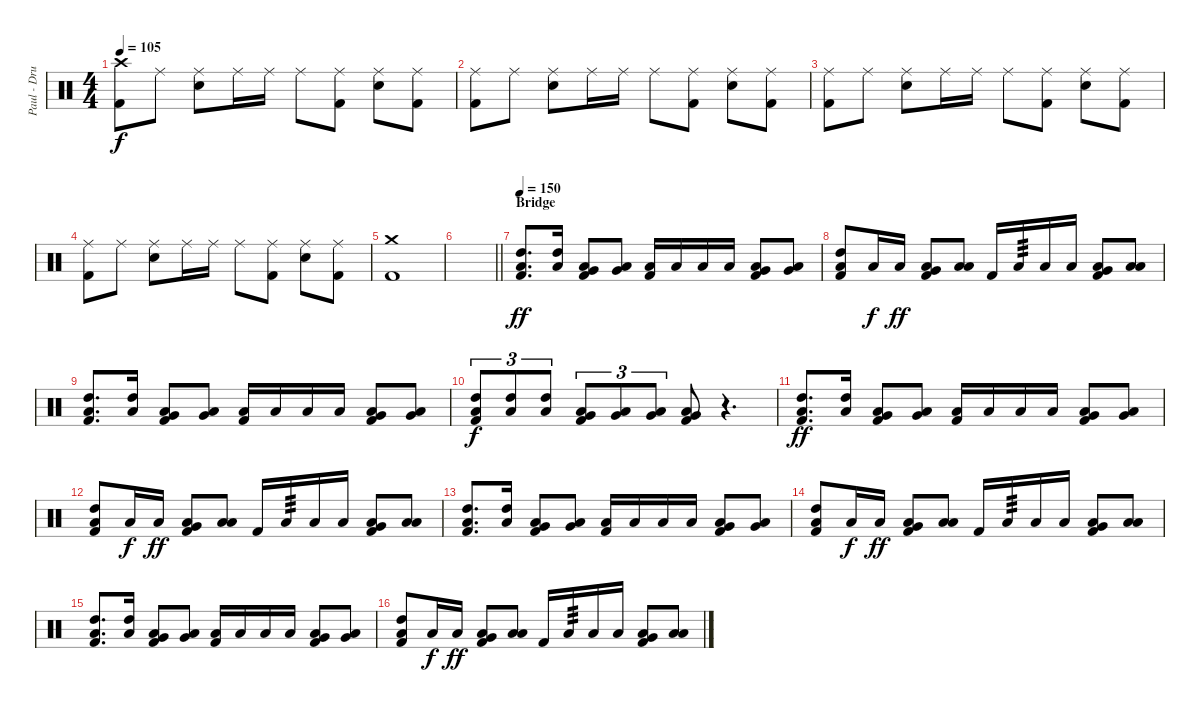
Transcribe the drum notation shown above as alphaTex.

\track ("Paul - Drums" "Paul - Dru") {instrument percussion}
\staff {score}
\articulation defaults
\ts (4 4)
\tempo 105
\clef neutral
\ks c
("Crash high (hit)" "Kick (hit) 2").8{dy f} "Ride (middle)".8 ("Ride (middle)" "Electric Snare (hit)").8 "Ride (middle)".16 "Ride (middle)".16 "Ride (middle)".8 ("Ride (middle)" "Kick (hit) 2").8 ("Ride (middle)" "Electric Snare (hit)").8 ("Ride (middle)" "Kick (hit) 2").8 |
("Ride (middle)" "Kick (hit) 2").8 "Ride (middle)".8 ("Ride (middle)" "Electric Snare (hit)").8 "Ride (middle)".16 "Ride (middle)".16 "Ride (middle)".8 ("Ride (middle)" "Kick (hit) 2").8 ("Ride (middle)" "Electric Snare (hit)").8 ("Ride (middle)" "Kick (hit) 2").8 |
("Ride (middle)" "Kick (hit) 2").8 "Ride (middle)".8 ("Ride (middle)" "Electric Snare (hit)").8 "Ride (middle)".16 "Ride (middle)".16 "Ride (middle)".8 ("Ride (middle)" "Kick (hit) 2").8 ("Ride (middle)" "Electric Snare (hit)").8 ("Ride (middle)" "Kick (hit) 2").8 |
("Ride (middle)" "Kick (hit) 2").8 "Ride (middle)".8 ("Ride (middle)" "Electric Snare (hit)").8 "Ride (middle)".16 "Ride (middle)".16 "Ride (middle)".8 ("Ride (middle)" "Kick (hit) 2").8 ("Ride (middle)" "Electric Snare (hit)").8 ("Ride (middle)" "Kick (hit) 2").8 |
("Crash medium (hit)" "Kick (hit) 2").1 |
\barLineRight lightlight
|
\section ("" "Bridge")
\tempo 150
("High Tom (hit)" "Low Tom (hit)" "Kick (hit) 2").8{d dy ff volume 14} ("High Tom (hit)" "Low Tom (hit)").16 ("Very Low Tom (hit)" "Low Tom (hit)" "Kick (hit) 2").8 ("Low Floor Tom (hit)" "Very Low Tom (hit)").8 ("Low Tom (hit)" "Kick (hit) 2").16 "Low Tom (hit)".16 "Low Tom (hit)".16 "Low Tom (hit)".16 ("Very Low Tom (hit)" "Low Tom (hit)" "Kick (hit) 2").8 ("Low Floor Tom (hit)" "Very Low Tom (hit)").8 |
("High Tom (hit)" "Low Tom (hit)" "Kick (hit) 2").8 "Low Tom (hit)".16{dy f} "Low Tom (hit)".16{dy ff} ("Low Tom (hit)" "Very Low Tom (hit)" "Kick (hit) 2").8 ("Low Tom (hit)" "Low Floor Tom (hit)").8 "Kick (hit) 2".16 "Low Tom (hit)".16{tp 3} "Low Tom (hit)".16 "Low Tom (hit)".16 ("Low Tom (hit)" "Very Low Tom (hit)" "Kick (hit) 2").8 ("Low Tom (hit)" "Low Floor Tom (hit)").8 |
("High Tom (hit)" "Low Tom (hit)" "Kick (hit) 2").8{d} ("High Tom (hit)" "Low Tom (hit)").16 ("Very Low Tom (hit)" "Low Tom (hit)" "Kick (hit) 2").8 ("Low Floor Tom (hit)" "Very Low Tom (hit)").8 ("Low Tom (hit)" "Kick (hit) 2").16 "Low Tom (hit)".16 "Low Tom (hit)".16 "Low Tom (hit)".16 ("Very Low Tom (hit)" "Low Tom (hit)" "Kick (hit) 2").8 ("Low Floor Tom (hit)" "Very Low Tom (hit)").8 |
("High Tom (hit)" "Low Tom (hit)" "Kick (hit) 2").8{tu (3 2) dy f} ("High Tom (hit)" "Low Tom (hit)").8{tu (3 2)} ("High Tom (hit)" "Low Tom (hit)").8{tu (3 2)} ("Low Tom (hit)" "Very Low Tom (hit)" "Kick (hit) 2").8{tu (3 2)} ("Low Tom (hit)" "Very Low Tom (hit)").8{tu (3 2)} ("Low Tom (hit)" "Very Low Tom (hit)").8{tu (3 2)} ("Very Low Tom (hit)" "Low Floor Tom (hit)" "Kick (hit) 2").8 r.4{d} |
("High Tom (hit)" "Low Tom (hit)" "Kick (hit) 2").8{d dy ff} ("High Tom (hit)" "Low Tom (hit)").16 ("Very Low Tom (hit)" "Low Tom (hit)" "Kick (hit) 2").8 ("Low Floor Tom (hit)" "Very Low Tom (hit)").8 ("Low Tom (hit)" "Kick (hit) 2").16 "Low Tom (hit)".16 "Low Tom (hit)".16 "Low Tom (hit)".16 ("Very Low Tom (hit)" "Low Tom (hit)" "Kick (hit) 2").8 ("Low Floor Tom (hit)" "Very Low Tom (hit)").8 |
("High Tom (hit)" "Low Tom (hit)" "Kick (hit) 2").8 "Low Tom (hit)".16{dy f} "Low Tom (hit)".16{dy ff} ("Low Tom (hit)" "Very Low Tom (hit)" "Kick (hit) 2").8 ("Low Tom (hit)" "Low Floor Tom (hit)").8 "Kick (hit) 2".16 "Low Tom (hit)".16{tp 3} "Low Tom (hit)".16 "Low Tom (hit)".16 ("Low Tom (hit)" "Very Low Tom (hit)" "Kick (hit) 2").8 ("Low Tom (hit)" "Low Floor Tom (hit)").8 |
("High Tom (hit)" "Low Tom (hit)" "Kick (hit) 2").8{d} ("High Tom (hit)" "Low Tom (hit)").16 ("Very Low Tom (hit)" "Low Tom (hit)" "Kick (hit) 2").8 ("Low Floor Tom (hit)" "Very Low Tom (hit)").8 ("Low Tom (hit)" "Kick (hit) 2").16 "Low Tom (hit)".16 "Low Tom (hit)".16 "Low Tom (hit)".16 ("Very Low Tom (hit)" "Low Tom (hit)" "Kick (hit) 2").8 ("Low Floor Tom (hit)" "Very Low Tom (hit)").8 |
("High Tom (hit)" "Low Tom (hit)" "Kick (hit) 2").8 "Low Tom (hit)".16{dy f} "Low Tom (hit)".16{dy ff} ("Low Tom (hit)" "Very Low Tom (hit)" "Kick (hit) 2").8 ("Low Tom (hit)" "Low Floor Tom (hit)").8 "Kick (hit) 2".16 "Low Tom (hit)".16{tp 3} "Low Tom (hit)".16 "Low Tom (hit)".16 ("Low Tom (hit)" "Very Low Tom (hit)" "Kick (hit) 2").8 ("Low Tom (hit)" "Low Floor Tom (hit)").8 |
("High Tom (hit)" "Low Tom (hit)" "Kick (hit) 2").8{d} ("High Tom (hit)" "Low Tom (hit)").16 ("Very Low Tom (hit)" "Low Tom (hit)" "Kick (hit) 2").8 ("Low Floor Tom (hit)" "Very Low Tom (hit)").8 ("Low Tom (hit)" "Kick (hit) 2").16 "Low Tom (hit)".16 "Low Tom (hit)".16 "Low Tom (hit)".16 ("Very Low Tom (hit)" "Low Tom (hit)" "Kick (hit) 2").8 ("Low Floor Tom (hit)" "Very Low Tom (hit)").8 |
("High Tom (hit)" "Low Tom (hit)" "Kick (hit) 2").8 "Low Tom (hit)".16{dy f} "Low Tom (hit)".16{dy ff} ("Low Tom (hit)" "Very Low Tom (hit)" "Kick (hit) 2").8 ("Low Tom (hit)" "Low Floor Tom (hit)").8 "Kick (hit) 2".16 "Low Tom (hit)".16{tp 3} "Low Tom (hit)".16 "Low Tom (hit)".16 ("Low Tom (hit)" "Very Low Tom (hit)" "Kick (hit) 2").8 ("Low Tom (hit)" "Low Floor Tom (hit)").8
